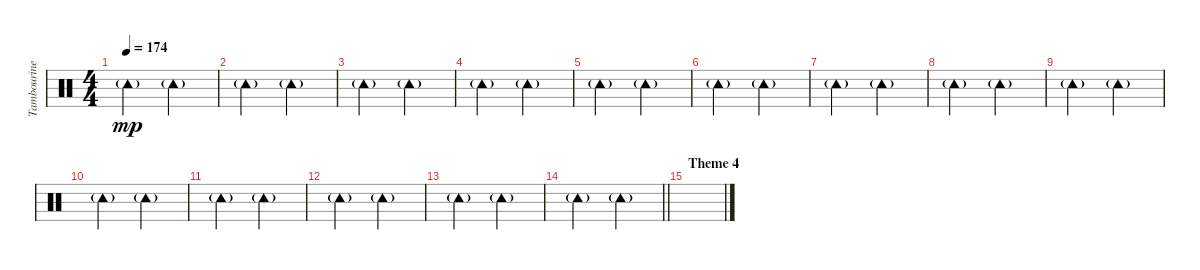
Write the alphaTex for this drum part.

\track ("Tambourine" "Tambourine") {instrument percussion}
\staff {score}
\articulation defaults
\ts (4 4)
\tempo 174
\clef neutral
\ks c "Tambourine (hit)"{g}.2{dy mp} "Tambourine (hit)"{g}.2
|
"Tambourine (hit)"{g}.2 "Tambourine (hit)"{g}.2 |
"Tambourine (hit)"{g}.2 "Tambourine (hit)"{g}.2 |
"Tambourine (hit)"{g}.2 "Tambourine (hit)"{g}.2 |
"Tambourine (hit)"{g}.2 "Tambourine (hit)"{g}.2 |
"Tambourine (hit)"{g}.2 "Tambourine (hit)"{g}.2 |
"Tambourine (hit)"{g}.2 "Tambourine (hit)"{g}.2 |
"Tambourine (hit)"{g}.2 "Tambourine (hit)"{g}.2 |
"Tambourine (hit)"{g}.2 "Tambourine (hit)"{g}.2 |
"Tambourine (hit)"{g}.2 "Tambourine (hit)"{g}.2 |
"Tambourine (hit)"{g}.2 "Tambourine (hit)"{g}.2 |
"Tambourine (hit)"{g}.2 "Tambourine (hit)"{g}.2 |
"Tambourine (hit)"{g}.2 "Tambourine (hit)"{g}.2 |
\barLineRight lightlight "Tambourine (hit)"{g}.2 "Tambourine (hit)"{g}.2
|
\section ("" "Theme 4")
